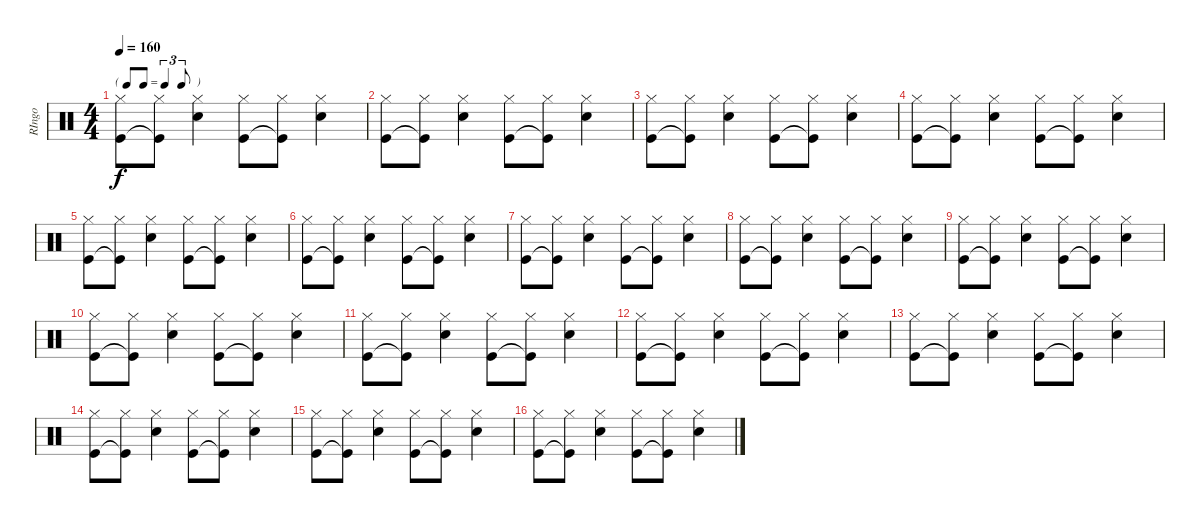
\track ("RIngo" "RIngo") {instrument percussion}
\staff {score}
\articulation defaults
\ts (4 4)
\tf triplet8th
\tempo 160
\clef neutral
\ks c
("Hi-Hat (closed)" "Kick (hit)").8{dy f} ("Hi-Hat (closed)" "Kick (hit)"{t}).8 ("Hi-Hat (closed)" "Snare (hit) 2").4 ("Hi-Hat (closed)" "Kick (hit)").8 ("Hi-Hat (closed)" "Kick (hit)"{t}).8 ("Hi-Hat (closed)" "Snare (hit) 2").4 |
("Hi-Hat (closed)" "Kick (hit)").8 ("Hi-Hat (closed)" "Kick (hit)"{t}).8 ("Hi-Hat (closed)" "Snare (hit) 2").4 ("Hi-Hat (closed)" "Kick (hit)").8 ("Hi-Hat (closed)" "Kick (hit)"{t}).8 ("Hi-Hat (closed)" "Snare (hit) 2").4 |
("Hi-Hat (closed)" "Kick (hit)").8 ("Hi-Hat (closed)" "Kick (hit)"{t}).8 ("Hi-Hat (closed)" "Snare (hit) 2").4 ("Hi-Hat (closed)" "Kick (hit)").8 ("Hi-Hat (closed)" "Kick (hit)"{t}).8 ("Hi-Hat (closed)" "Snare (hit) 2").4 |
("Hi-Hat (closed)" "Kick (hit)").8 ("Hi-Hat (closed)" "Kick (hit)"{t}).8 ("Hi-Hat (closed)" "Snare (hit) 2").4 ("Hi-Hat (closed)" "Kick (hit)").8 ("Hi-Hat (closed)" "Kick (hit)"{t}).8 ("Hi-Hat (closed)" "Snare (hit) 2").4 |
("Hi-Hat (closed)" "Kick (hit)").8 ("Hi-Hat (closed)" "Kick (hit)"{t}).8 ("Hi-Hat (closed)" "Snare (hit) 2").4 ("Hi-Hat (closed)" "Kick (hit)").8 ("Hi-Hat (closed)" "Kick (hit)"{t}).8 ("Hi-Hat (closed)" "Snare (hit) 2").4 |
("Hi-Hat (closed)" "Kick (hit)").8 ("Hi-Hat (closed)" "Kick (hit)"{t}).8 ("Hi-Hat (closed)" "Snare (hit) 2").4 ("Hi-Hat (closed)" "Kick (hit)").8 ("Hi-Hat (closed)" "Kick (hit)"{t}).8 ("Hi-Hat (closed)" "Snare (hit) 2").4 |
("Hi-Hat (closed)" "Kick (hit)").8 ("Hi-Hat (closed)" "Kick (hit)"{t}).8 ("Hi-Hat (closed)" "Snare (hit) 2").4 ("Hi-Hat (closed)" "Kick (hit)").8 ("Hi-Hat (closed)" "Kick (hit)"{t}).8 ("Hi-Hat (closed)" "Snare (hit) 2").4 |
("Hi-Hat (closed)" "Kick (hit)").8 ("Hi-Hat (closed)" "Kick (hit)"{t}).8 ("Hi-Hat (closed)" "Snare (hit) 2").4 ("Hi-Hat (closed)" "Kick (hit)").8 ("Hi-Hat (closed)" "Kick (hit)"{t}).8 ("Hi-Hat (closed)" "Snare (hit) 2").4 |
("Hi-Hat (closed)" "Kick (hit)").8 ("Hi-Hat (closed)" "Kick (hit)"{t}).8 ("Hi-Hat (closed)" "Snare (hit) 2").4 ("Hi-Hat (closed)" "Kick (hit)").8 ("Hi-Hat (closed)" "Kick (hit)"{t}).8 ("Hi-Hat (closed)" "Snare (hit) 2").4 |
("Hi-Hat (closed)" "Kick (hit)").8 ("Hi-Hat (closed)" "Kick (hit)"{t}).8 ("Hi-Hat (closed)" "Snare (hit) 2").4 ("Hi-Hat (closed)" "Kick (hit)").8 ("Hi-Hat (closed)" "Kick (hit)"{t}).8 ("Hi-Hat (closed)" "Snare (hit) 2").4 |
("Hi-Hat (closed)" "Kick (hit)").8 ("Hi-Hat (closed)" "Kick (hit)"{t}).8 ("Hi-Hat (closed)" "Snare (hit) 2").4 ("Hi-Hat (closed)" "Kick (hit)").8 ("Hi-Hat (closed)" "Kick (hit)"{t}).8 ("Hi-Hat (closed)" "Snare (hit) 2").4 |
("Hi-Hat (closed)" "Kick (hit)").8 ("Hi-Hat (closed)" "Kick (hit)"{t}).8 ("Hi-Hat (closed)" "Snare (hit) 2").4 ("Hi-Hat (closed)" "Kick (hit)").8 ("Hi-Hat (closed)" "Kick (hit)"{t}).8 ("Hi-Hat (closed)" "Snare (hit) 2").4 |
("Hi-Hat (closed)" "Kick (hit)").8 ("Hi-Hat (closed)" "Kick (hit)"{t}).8 ("Hi-Hat (closed)" "Snare (hit) 2").4 ("Hi-Hat (closed)" "Kick (hit)").8 ("Hi-Hat (closed)" "Kick (hit)"{t}).8 ("Hi-Hat (closed)" "Snare (hit) 2").4 |
("Hi-Hat (closed)" "Kick (hit)").8 ("Hi-Hat (closed)" "Kick (hit)"{t}).8 ("Hi-Hat (closed)" "Snare (hit) 2").4 ("Hi-Hat (closed)" "Kick (hit)").8 ("Hi-Hat (closed)" "Kick (hit)"{t}).8 ("Hi-Hat (closed)" "Snare (hit) 2").4 |
("Hi-Hat (closed)" "Kick (hit)").8 ("Hi-Hat (closed)" "Kick (hit)"{t}).8 ("Hi-Hat (closed)" "Snare (hit) 2").4 ("Hi-Hat (closed)" "Kick (hit)").8 ("Hi-Hat (closed)" "Kick (hit)"{t}).8 ("Hi-Hat (closed)" "Snare (hit) 2").4 |
("Hi-Hat (closed)" "Kick (hit)").8 ("Hi-Hat (closed)" "Kick (hit)"{t}).8 ("Hi-Hat (closed)" "Snare (hit) 2").4 ("Hi-Hat (closed)" "Kick (hit)").8 ("Hi-Hat (closed)" "Kick (hit)"{t}).8 ("Hi-Hat (closed)" "Snare (hit) 2").4
